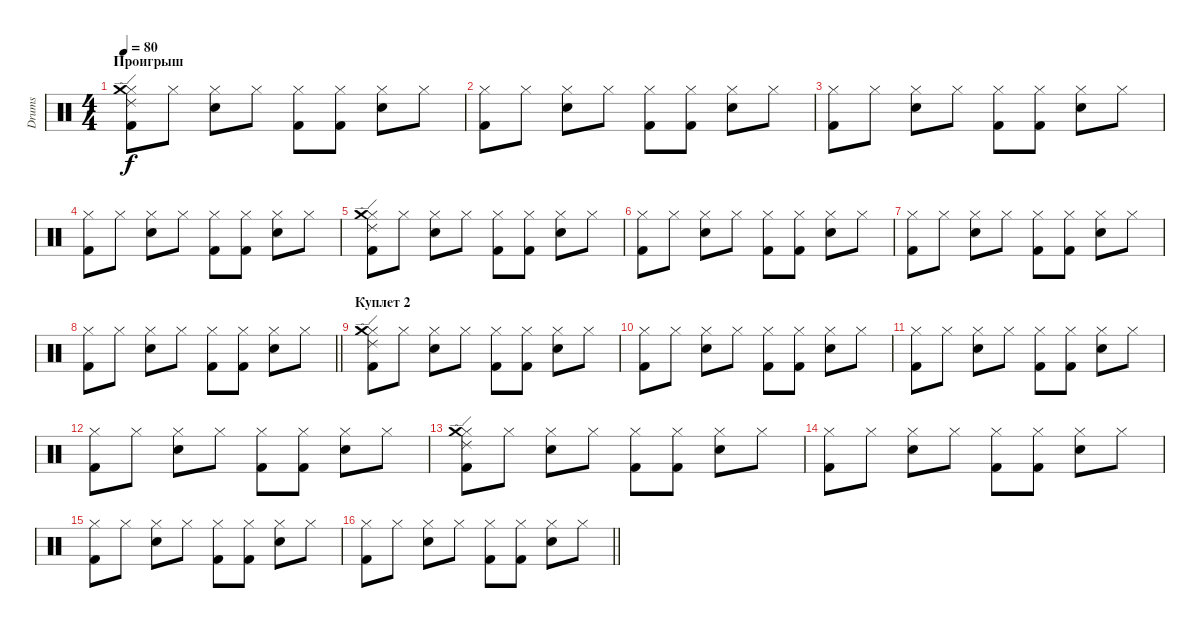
\track ("Drums" "Drums") {instrument percussion}
\staff {score}
\articulation defaults
\ts (4 4)
\section ("" "Проигрыш")
\tempo 80
\clef neutral
\ks c
("Hi-Hat (closed)" "Kick (hit) 2" "Crash medium (hit)" "Ride (edge) 2").8{dy f} "Hi-Hat (closed)".8 ("Hi-Hat (closed)" "Snare (hit) 2").8 "Hi-Hat (closed)".8 ("Hi-Hat (closed)" "Kick (hit) 2").8 ("Hi-Hat (closed)" "Kick (hit) 2").8 ("Hi-Hat (closed)" "Snare (hit) 2").8 "Hi-Hat (closed)".8 |
("Hi-Hat (closed)" "Kick (hit) 2").8 "Hi-Hat (closed)".8 ("Hi-Hat (closed)" "Snare (hit) 2").8 "Hi-Hat (closed)".8 ("Hi-Hat (closed)" "Kick (hit) 2").8 ("Hi-Hat (closed)" "Kick (hit) 2").8 ("Hi-Hat (closed)" "Snare (hit) 2").8 "Hi-Hat (closed)".8 |
("Hi-Hat (closed)" "Kick (hit) 2").8 "Hi-Hat (closed)".8 ("Hi-Hat (closed)" "Snare (hit) 2").8 "Hi-Hat (closed)".8 ("Hi-Hat (closed)" "Kick (hit) 2").8 ("Hi-Hat (closed)" "Kick (hit) 2").8 ("Hi-Hat (closed)" "Snare (hit) 2").8 "Hi-Hat (closed)".8 |
("Hi-Hat (closed)" "Kick (hit) 2").8 "Hi-Hat (closed)".8 ("Hi-Hat (closed)" "Snare (hit) 2").8 "Hi-Hat (closed)".8 ("Hi-Hat (closed)" "Kick (hit) 2").8 ("Hi-Hat (closed)" "Kick (hit) 2").8 ("Hi-Hat (closed)" "Snare (hit) 2").8 "Hi-Hat (closed)".8 |
("Hi-Hat (closed)" "Kick (hit) 2" "Crash medium (hit)" "Ride (edge) 2").8 "Hi-Hat (closed)".8 ("Hi-Hat (closed)" "Snare (hit) 2").8 "Hi-Hat (closed)".8 ("Hi-Hat (closed)" "Kick (hit) 2").8 ("Hi-Hat (closed)" "Kick (hit) 2").8 ("Hi-Hat (closed)" "Snare (hit) 2").8 "Hi-Hat (closed)".8 |
("Hi-Hat (closed)" "Kick (hit) 2").8 "Hi-Hat (closed)".8 ("Hi-Hat (closed)" "Snare (hit) 2").8 "Hi-Hat (closed)".8 ("Hi-Hat (closed)" "Kick (hit) 2").8 ("Hi-Hat (closed)" "Kick (hit) 2").8 ("Hi-Hat (closed)" "Snare (hit) 2").8 "Hi-Hat (closed)".8 |
("Hi-Hat (closed)" "Kick (hit) 2").8 "Hi-Hat (closed)".8 ("Hi-Hat (closed)" "Snare (hit) 2").8 "Hi-Hat (closed)".8 ("Hi-Hat (closed)" "Kick (hit) 2").8 ("Hi-Hat (closed)" "Kick (hit) 2").8 ("Hi-Hat (closed)" "Snare (hit) 2").8 "Hi-Hat (closed)".8 |
\barLineRight lightlight
("Hi-Hat (closed)" "Kick (hit) 2").8 "Hi-Hat (closed)".8 ("Hi-Hat (closed)" "Snare (hit) 2").8 "Hi-Hat (closed)".8 ("Hi-Hat (closed)" "Kick (hit) 2").8 ("Hi-Hat (closed)" "Kick (hit) 2").8 ("Hi-Hat (closed)" "Snare (hit) 2").8 "Hi-Hat (closed)".8 |
\section ("" "Куплет 2")
("Hi-Hat (closed)" "Kick (hit) 2" "Crash medium (hit)" "Ride (edge) 2").8 "Hi-Hat (closed)".8 ("Hi-Hat (closed)" "Snare (hit) 2").8 "Hi-Hat (closed)".8 ("Hi-Hat (closed)" "Kick (hit) 2").8 ("Hi-Hat (closed)" "Kick (hit) 2").8 ("Hi-Hat (closed)" "Snare (hit) 2").8 "Hi-Hat (closed)".8 |
("Hi-Hat (closed)" "Kick (hit) 2").8 "Hi-Hat (closed)".8 ("Hi-Hat (closed)" "Snare (hit) 2").8 "Hi-Hat (closed)".8 ("Hi-Hat (closed)" "Kick (hit) 2").8 ("Hi-Hat (closed)" "Kick (hit) 2").8 ("Hi-Hat (closed)" "Snare (hit) 2").8 "Hi-Hat (closed)".8 |
("Hi-Hat (closed)" "Kick (hit) 2").8 "Hi-Hat (closed)".8 ("Hi-Hat (closed)" "Snare (hit) 2").8 "Hi-Hat (closed)".8 ("Hi-Hat (closed)" "Kick (hit) 2").8 ("Hi-Hat (closed)" "Kick (hit) 2").8 ("Hi-Hat (closed)" "Snare (hit) 2").8 "Hi-Hat (closed)".8 |
("Hi-Hat (closed)" "Kick (hit) 2").8 "Hi-Hat (closed)".8 ("Hi-Hat (closed)" "Snare (hit) 2").8 "Hi-Hat (closed)".8 ("Hi-Hat (closed)" "Kick (hit) 2").8 ("Hi-Hat (closed)" "Kick (hit) 2").8 ("Hi-Hat (closed)" "Snare (hit) 2").8 "Hi-Hat (closed)".8 |
("Hi-Hat (closed)" "Kick (hit) 2" "Crash medium (hit)" "Ride (edge) 2").8 "Hi-Hat (closed)".8 ("Hi-Hat (closed)" "Snare (hit) 2").8 "Hi-Hat (closed)".8 ("Hi-Hat (closed)" "Kick (hit) 2").8 ("Hi-Hat (closed)" "Kick (hit) 2").8 ("Hi-Hat (closed)" "Snare (hit) 2").8 "Hi-Hat (closed)".8 |
("Hi-Hat (closed)" "Kick (hit) 2").8 "Hi-Hat (closed)".8 ("Hi-Hat (closed)" "Snare (hit) 2").8 "Hi-Hat (closed)".8 ("Hi-Hat (closed)" "Kick (hit) 2").8 ("Hi-Hat (closed)" "Kick (hit) 2").8 ("Hi-Hat (closed)" "Snare (hit) 2").8 "Hi-Hat (closed)".8 |
("Hi-Hat (closed)" "Kick (hit) 2").8 "Hi-Hat (closed)".8 ("Hi-Hat (closed)" "Snare (hit) 2").8 "Hi-Hat (closed)".8 ("Hi-Hat (closed)" "Kick (hit) 2").8 ("Hi-Hat (closed)" "Kick (hit) 2").8 ("Hi-Hat (closed)" "Snare (hit) 2").8 "Hi-Hat (closed)".8 |
\barLineRight lightlight
("Hi-Hat (closed)" "Kick (hit) 2").8 "Hi-Hat (closed)".8 ("Hi-Hat (closed)" "Snare (hit) 2").8 "Hi-Hat (closed)".8 ("Hi-Hat (closed)" "Kick (hit) 2").8 ("Hi-Hat (closed)" "Kick (hit) 2").8 ("Hi-Hat (closed)" "Snare (hit) 2").8 "Hi-Hat (closed)".8
